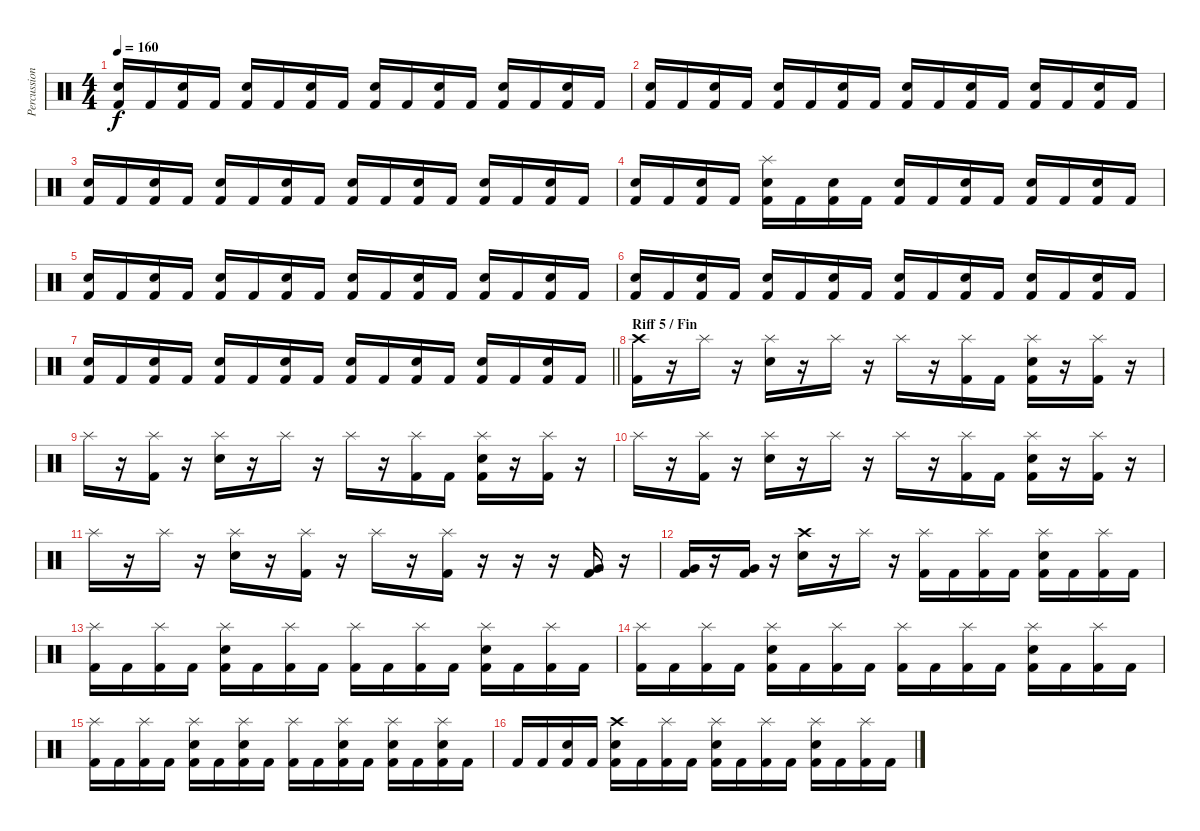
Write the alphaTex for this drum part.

\track ("Percussions" "Percussion") {instrument percussion bank 1}
\staff {score}
\articulation defaults
\ts (4 4)
\tempo 160
\clef neutral
\ks c
("Kick (hit) 2" "Electric Snare (hit)").16{dy f} "Kick (hit) 2".16 ("Kick (hit) 2" "Electric Snare (hit)").16 "Kick (hit) 2".16 ("Kick (hit) 2" "Electric Snare (hit)").16 "Kick (hit) 2".16 ("Kick (hit) 2" "Electric Snare (hit)").16 "Kick (hit) 2".16 ("Kick (hit) 2" "Electric Snare (hit)").16 "Kick (hit) 2".16 ("Kick (hit) 2" "Electric Snare (hit)").16 "Kick (hit) 2".16 ("Kick (hit) 2" "Electric Snare (hit)").16 "Kick (hit) 2".16 ("Kick (hit) 2" "Electric Snare (hit)").16 "Kick (hit) 2".16 |
("Kick (hit) 2" "Electric Snare (hit)").16 "Kick (hit) 2".16 ("Kick (hit) 2" "Electric Snare (hit)").16 "Kick (hit) 2".16 ("Kick (hit) 2" "Electric Snare (hit)").16 "Kick (hit) 2".16 ("Kick (hit) 2" "Electric Snare (hit)").16 "Kick (hit) 2".16 ("Kick (hit) 2" "Electric Snare (hit)").16 "Kick (hit) 2".16 ("Kick (hit) 2" "Electric Snare (hit)").16 "Kick (hit) 2".16 ("Kick (hit) 2" "Electric Snare (hit)").16 "Kick (hit) 2".16 ("Kick (hit) 2" "Electric Snare (hit)").16 "Kick (hit) 2".16 |
("Kick (hit) 2" "Electric Snare (hit)").16 "Kick (hit) 2".16 ("Kick (hit) 2" "Electric Snare (hit)").16 "Kick (hit) 2".16 ("Kick (hit) 2" "Electric Snare (hit)").16 "Kick (hit) 2".16 ("Kick (hit) 2" "Electric Snare (hit)").16 "Kick (hit) 2".16 ("Kick (hit) 2" "Electric Snare (hit)").16 "Kick (hit) 2".16 ("Kick (hit) 2" "Electric Snare (hit)").16 "Kick (hit) 2".16 ("Kick (hit) 2" "Electric Snare (hit)").16 "Kick (hit) 2".16 ("Kick (hit) 2" "Electric Snare (hit)").16 "Kick (hit) 2".16 |
("Kick (hit) 2" "Electric Snare (hit)").16 "Kick (hit) 2".16 ("Kick (hit) 2" "Electric Snare (hit)").16 "Kick (hit) 2".16 ("Kick (hit) 2" "Electric Snare (hit)" "Splash (hit)").16 "Kick (hit) 2".16 ("Kick (hit) 2" "Electric Snare (hit)").16 "Kick (hit) 2".16 ("Kick (hit) 2" "Electric Snare (hit)").16 "Kick (hit) 2".16 ("Kick (hit) 2" "Electric Snare (hit)").16 "Kick (hit) 2".16 ("Kick (hit) 2" "Electric Snare (hit)").16 "Kick (hit) 2".16 ("Kick (hit) 2" "Electric Snare (hit)").16 "Kick (hit) 2".16 |
("Kick (hit) 2" "Electric Snare (hit)").16 "Kick (hit) 2".16 ("Kick (hit) 2" "Electric Snare (hit)").16 "Kick (hit) 2".16 ("Kick (hit) 2" "Electric Snare (hit)").16 "Kick (hit) 2".16 ("Kick (hit) 2" "Electric Snare (hit)").16 "Kick (hit) 2".16 ("Kick (hit) 2" "Electric Snare (hit)").16 "Kick (hit) 2".16 ("Kick (hit) 2" "Electric Snare (hit)").16 "Kick (hit) 2".16 ("Kick (hit) 2" "Electric Snare (hit)").16 "Kick (hit) 2".16 ("Kick (hit) 2" "Electric Snare (hit)").16 "Kick (hit) 2".16 |
("Kick (hit) 2" "Electric Snare (hit)").16 "Kick (hit) 2".16 ("Kick (hit) 2" "Electric Snare (hit)").16 "Kick (hit) 2".16 ("Kick (hit) 2" "Electric Snare (hit)").16 "Kick (hit) 2".16 ("Kick (hit) 2" "Electric Snare (hit)").16 "Kick (hit) 2".16 ("Kick (hit) 2" "Electric Snare (hit)").16 "Kick (hit) 2".16 ("Kick (hit) 2" "Electric Snare (hit)").16 "Kick (hit) 2".16 ("Kick (hit) 2" "Electric Snare (hit)").16 "Kick (hit) 2".16 ("Kick (hit) 2" "Electric Snare (hit)").16 "Kick (hit) 2".16 |
\barLineRight lightlight
("Kick (hit) 2" "Electric Snare (hit)").16 "Kick (hit) 2".16 ("Kick (hit) 2" "Electric Snare (hit)").16 "Kick (hit) 2".16 ("Kick (hit) 2" "Electric Snare (hit)").16 "Kick (hit) 2".16 ("Kick (hit) 2" "Electric Snare (hit)").16 "Kick (hit) 2".16 ("Kick (hit) 2" "Electric Snare (hit)").16 "Kick (hit) 2".16 ("Kick (hit) 2" "Electric Snare (hit)").16 "Kick (hit) 2".16 ("Kick (hit) 2" "Electric Snare (hit)").16 "Kick (hit) 2".16 ("Kick (hit) 2" "Electric Snare (hit)").16 "Kick (hit) 2".16 |
\section ("" "Riff 5 / Fin")
("Kick (hit) 2" "Crash high (hit)").16 r.16 "Splash (hit)".16 r.16 ("Electric Snare (hit)" "Splash (hit)").16 r.16 "Splash (hit)".16 r.16 "Splash (hit)".16 r.16 ("Kick (hit) 2" "Splash (hit)").16 "Kick (hit) 2".16 ("Kick (hit) 2" "Electric Snare (hit)" "Splash (hit)").16 r.16 ("Kick (hit) 2" "Splash (hit)").16 r.16 |
"Splash (hit)".16 r.16 ("Kick (hit) 2" "Splash (hit)").16 r.16 ("Electric Snare (hit)" "Splash (hit)").16 r.16 "Splash (hit)".16 r.16 "Splash (hit)".16 r.16 ("Kick (hit) 2" "Splash (hit)").16 "Kick (hit) 2".16 ("Kick (hit) 2" "Electric Snare (hit)" "Splash (hit)").16 r.16 ("Kick (hit) 2" "Splash (hit)").16 r.16 |
"Splash (hit)".16 r.16 ("Kick (hit) 2" "Splash (hit)").16 r.16 ("Electric Snare (hit)" "Splash (hit)").16 r.16 "Splash (hit)".16 r.16 "Splash (hit)".16 r.16 ("Kick (hit) 2" "Splash (hit)").16 "Kick (hit) 2".16 ("Kick (hit) 2" "Electric Snare (hit)" "Splash (hit)").16 r.16 ("Kick (hit) 2" "Splash (hit)").16 r.16 |
"Splash (hit)".16 r.16 "Splash (hit)".16 r.16 ("Electric Snare (hit)" "Splash (hit)").16 r.16 ("Kick (hit) 2" "Splash (hit)").16 r.16 "Splash (hit)".16 r.16 ("Kick (hit) 2" "Splash (hit)").16 r.16 r.16 r.16 ("Kick (hit) 2" "Very Low Tom (hit)").16 r.16 |
("Kick (hit) 2" "Very Low Tom (hit)").16 r.16 ("Kick (hit) 2" "Very Low Tom (hit)").16 r.16 ("Electric Snare (hit)" "Crash high (hit)").16 r.16 "Splash (hit)".16 r.16 ("Kick (hit) 2" "Splash (hit)").16 "Kick (hit) 2".16 ("Kick (hit) 2" "Splash (hit)").16 "Kick (hit) 2".16 ("Kick (hit) 2" "Electric Snare (hit)" "Splash (hit)").16 "Kick (hit) 2".16 ("Kick (hit) 2" "Splash (hit)").16 "Kick (hit) 2".16 |
("Kick (hit) 2" "Splash (hit)").16 "Kick (hit) 2".16 ("Kick (hit) 2" "Splash (hit)").16 "Kick (hit) 2".16 ("Kick (hit) 2" "Electric Snare (hit)" "Splash (hit)").16 "Kick (hit) 2".16 ("Kick (hit) 2" "Splash (hit)").16 "Kick (hit) 2".16 ("Kick (hit) 2" "Splash (hit)").16 "Kick (hit) 2".16 ("Kick (hit) 2" "Splash (hit)").16 "Kick (hit) 2".16 ("Kick (hit) 2" "Electric Snare (hit)" "Splash (hit)").16 "Kick (hit) 2".16 ("Kick (hit) 2" "Splash (hit)").16 "Kick (hit) 2".16 |
("Kick (hit) 2" "Splash (hit)").16 "Kick (hit) 2".16 ("Kick (hit) 2" "Splash (hit)").16 "Kick (hit) 2".16 ("Kick (hit) 2" "Electric Snare (hit)" "Splash (hit)").16 "Kick (hit) 2".16 ("Kick (hit) 2" "Splash (hit)").16 "Kick (hit) 2".16 ("Kick (hit) 2" "Splash (hit)").16 "Kick (hit) 2".16 ("Kick (hit) 2" "Splash (hit)").16 "Kick (hit) 2".16 ("Kick (hit) 2" "Electric Snare (hit)" "Splash (hit)").16 "Kick (hit) 2".16 ("Kick (hit) 2" "Splash (hit)").16 "Kick (hit) 2".16 |
("Kick (hit) 2" "Splash (hit)").16 "Kick (hit) 2".16 ("Kick (hit) 2" "Splash (hit)").16 "Kick (hit) 2".16 ("Kick (hit) 2" "Electric Snare (hit)" "Splash (hit)").16 "Kick (hit) 2".16 ("Kick (hit) 2" "Electric Snare (hit)" "Splash (hit)").16 "Kick (hit) 2".16 ("Kick (hit) 2" "Splash (hit)").16 "Kick (hit) 2".16 ("Kick (hit) 2" "Electric Snare (hit)" "Splash (hit)").16 "Kick (hit) 2".16 ("Kick (hit) 2" "Electric Snare (hit)" "Splash (hit)").16 "Kick (hit) 2".16 ("Kick (hit) 2" "Electric Snare (hit)" "Splash (hit)").16 "Kick (hit) 2".16 |
"Kick (hit) 2".16 "Kick (hit) 2".16 ("Kick (hit) 2" "Electric Snare (hit)").16 "Kick (hit) 2".16 ("Kick (hit) 2" "Electric Snare (hit)" "Crash high (hit)").16 "Kick (hit) 2".16 ("Kick (hit) 2" "Splash (hit)").16 "Kick (hit) 2".16 ("Kick (hit) 2" "Electric Snare (hit)" "Splash (hit)").16 "Kick (hit) 2".16 ("Kick (hit) 2" "Splash (hit)").16 "Kick (hit) 2".16 ("Kick (hit) 2" "Electric Snare (hit)" "Splash (hit)").16 "Kick (hit) 2".16 ("Kick (hit) 2" "Splash (hit)").16 "Kick (hit) 2".16
